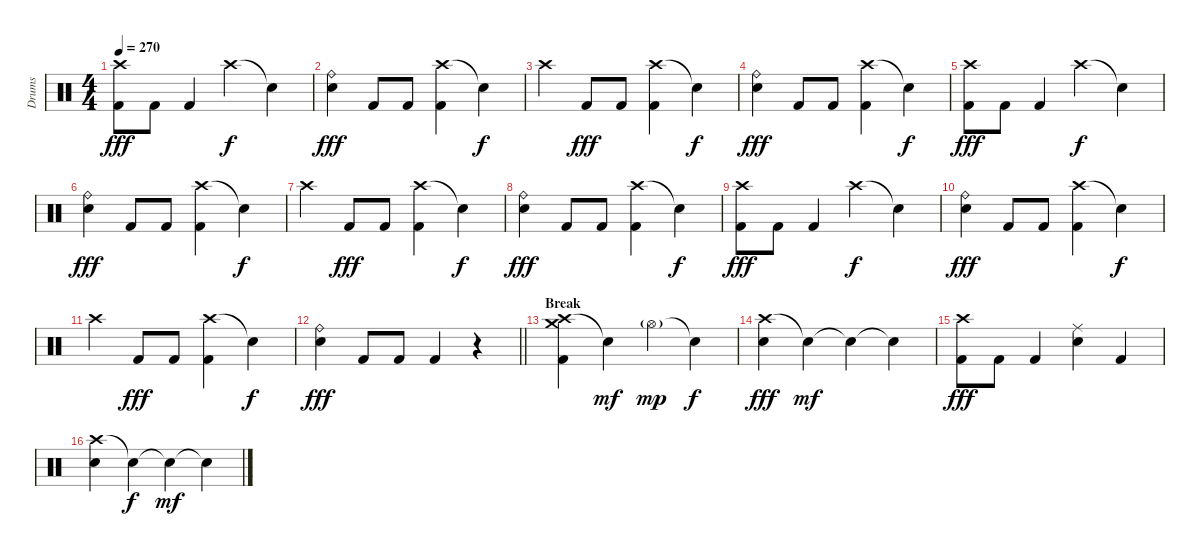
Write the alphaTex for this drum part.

\track ("Drums" "Drums") {instrument percussion}
\staff {score}
\articulation defaults
\ts (4 4)
\tempo 270
\clef neutral
\ks c
("Crash high (hit)" "Kick (hit) 2").8{dy fff} "Kick (hit) 2".8 "Kick (hit) 2".4 "Crash high (hit)".4{dy f} "Snare (hit)"{t}.4 |
("Ride (bell)" "Snare (hit) 2").4{dy fff} "Kick (hit) 2".8 "Kick (hit) 2".8 ("Crash high (hit)" "Kick (hit) 2").4 "Snare (hit)"{t}.4{dy f} |
"Crash high (hit)".4 "Kick (hit) 2".8{dy fff} "Kick (hit) 2".8 ("Crash high (hit)" "Kick (hit) 2").4 "Snare (hit)"{t}.4{dy f} |
("Ride (bell)" "Snare (hit) 2").4{dy fff} "Kick (hit) 2".8 "Kick (hit) 2".8 ("Crash high (hit)" "Kick (hit) 2").4 "Snare (hit)"{t}.4{dy f} |
("Crash high (hit)" "Kick (hit) 2").8{dy fff} "Kick (hit) 2".8 "Kick (hit) 2".4 "Crash high (hit)".4{dy f} "Snare (hit)"{t}.4 |
("Ride (bell)" "Snare (hit) 2").4{dy fff} "Kick (hit) 2".8 "Kick (hit) 2".8 ("Crash high (hit)" "Kick (hit) 2").4 "Snare (hit)"{t}.4{dy f} |
"Crash high (hit)".4 "Kick (hit) 2".8{dy fff} "Kick (hit) 2".8 ("Crash high (hit)" "Kick (hit) 2").4 "Snare (hit)"{t}.4{dy f} |
("Ride (bell)" "Snare (hit) 2").4{dy fff} "Kick (hit) 2".8 "Kick (hit) 2".8 ("Crash high (hit)" "Kick (hit) 2").4 "Snare (hit)"{t}.4{dy f} |
("Crash high (hit)" "Kick (hit) 2").8{dy fff} "Kick (hit) 2".8 "Kick (hit) 2".4 "Crash high (hit)".4{dy f} "Snare (hit)"{t}.4 |
("Ride (bell)" "Snare (hit) 2").4{dy fff} "Kick (hit) 2".8 "Kick (hit) 2".8 ("Crash high (hit)" "Kick (hit) 2").4 "Snare (hit)"{t}.4{dy f} |
"Crash high (hit)".4 "Kick (hit) 2".8{dy fff} "Kick (hit) 2".8 ("Crash high (hit)" "Kick (hit) 2").4 "Snare (hit)"{t}.4{dy f} |
\barLineRight lightlight
("Ride (bell)" "Snare (hit) 2").4{dy fff} "Kick (hit) 2".8 "Kick (hit) 2".8 "Kick (hit) 2".4 r.4 |
\section ("" "Break")
("Crash high (hit)" "Crash medium (hit)" "Kick (hit) 2").4 "Snare (hit)"{t}.4{dy mf} "Hi-Hat (open)"{g}.4{dy mp} "Snare (hit)"{t}.4{dy f} |
("Crash high (hit)" "Snare (hit) 2").4{dy fff} "Snare (hit)"{t}.4{dy mf} "Snare (hit)"{t}.4 "Snare (hit)"{t}.4 |
("Crash high (hit)" "Kick (hit) 2").8{dy fff} "Kick (hit) 2".8 "Kick (hit) 2".4 ("Ride (middle)" "Snare (hit) 2").4 "Kick (hit) 2".4 |
("Crash high (hit)" "Snare (hit) 2").4 "Snare (hit)"{t}.4{dy f} "Snare (hit)"{t}.4{dy mf} "Snare (hit)"{t}.4
